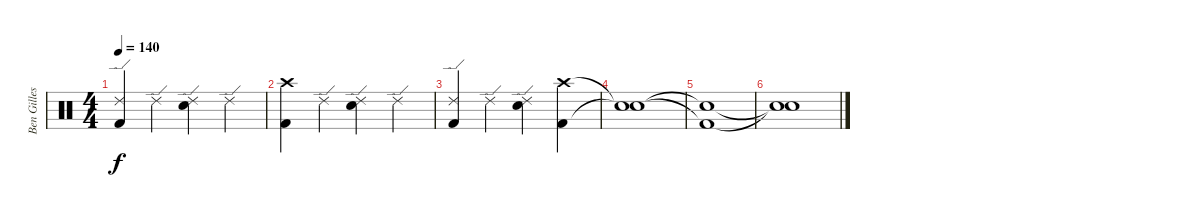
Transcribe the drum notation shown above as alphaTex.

\track ("Ben Gilles" "Ben Gilles") {instrument percussion}
\staff {score}
\articulation defaults
\ts (4 4)
\tempo 140
\clef neutral
\ks c
("Ride (edge) 2" "Kick (hit) 2").4{dy f} "Ride (edge) 2".4 ("Ride (edge) 2" "Electric Snare (hit)").4 "Ride (edge) 2".4 |
("Crash high (hit)" "Kick (hit) 2").4 "Ride (edge) 2".4 ("Ride (edge) 2" "Electric Snare (hit)").4 "Ride (edge) 2".4 |
("Ride (edge) 2" "Kick (hit) 2").4 "Ride (edge) 2".4 ("Ride (edge) 2" "Electric Snare (hit)").4 ("Crash high (hit)" "Kick (hit) 2").4 |
("Snare (hit)"{t} "Snare (hit)"{t}).1 |
("Snare (hit)"{t} "Kick (hit) 2"{t}).1 |
("Snare (hit)"{t} "Snare (hit)"{t}).1
